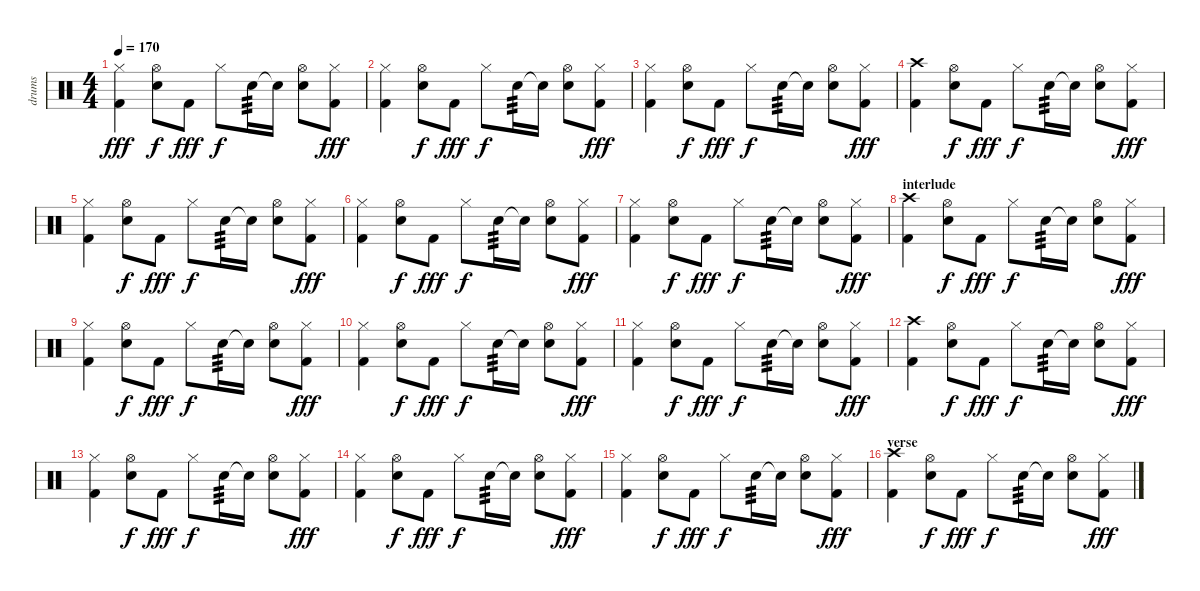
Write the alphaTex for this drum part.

\track ("drums" "drums") {instrument percussion}
\staff {score}
\articulation defaults
\ts (4 4)
\tempo 170
\clef neutral
\ks c
("Hi-Hat (closed)" "Kick (hit) 2").4{dy fff} ("Hi-Hat (open)" "Snare (hit) 2").8{dy f} "Kick (hit) 2".8{dy fff} "Hi-Hat (closed)".8{dy f} "Snare (hit) 2".16{tp 3} "Snare (hit) 2"{t}.16 ("Hi-Hat (open)" "Snare (hit) 2").8 ("Hi-Hat (closed)" "Kick (hit) 2").8{dy fff} |
("Hi-Hat (closed)" "Kick (hit) 2").4 ("Hi-Hat (open)" "Snare (hit) 2").8{dy f} "Kick (hit) 2".8{dy fff} "Hi-Hat (closed)".8{dy f} "Snare (hit) 2".16{tp 3} "Snare (hit) 2"{t}.16 ("Hi-Hat (open)" "Snare (hit) 2").8 ("Hi-Hat (closed)" "Kick (hit) 2").8{dy fff} |
("Hi-Hat (closed)" "Kick (hit) 2").4 ("Hi-Hat (open)" "Snare (hit) 2").8{dy f} "Kick (hit) 2".8{dy fff} "Hi-Hat (closed)".8{dy f} "Snare (hit) 2".16{tp 3} "Snare (hit) 2"{t}.16 ("Hi-Hat (open)" "Snare (hit) 2").8 ("Hi-Hat (closed)" "Kick (hit) 2").8{dy fff} |
("Crash high (hit)" "Kick (hit) 2").4 ("Hi-Hat (open)" "Snare (hit) 2").8{dy f} "Kick (hit) 2".8{dy fff} "Hi-Hat (closed)".8{dy f} "Snare (hit) 2".16{tp 3} "Snare (hit) 2"{t}.16 ("Hi-Hat (open)" "Snare (hit) 2").8 ("Hi-Hat (closed)" "Kick (hit) 2").8{dy fff} |
("Hi-Hat (closed)" "Kick (hit) 2").4 ("Hi-Hat (open)" "Snare (hit) 2").8{dy f} "Kick (hit) 2".8{dy fff} "Hi-Hat (closed)".8{dy f} "Snare (hit) 2".16{tp 3} "Snare (hit) 2"{t}.16 ("Hi-Hat (open)" "Snare (hit) 2").8 ("Hi-Hat (closed)" "Kick (hit) 2").8{dy fff} |
("Hi-Hat (closed)" "Kick (hit) 2").4 ("Hi-Hat (open)" "Snare (hit) 2").8{dy f} "Kick (hit) 2".8{dy fff} "Hi-Hat (closed)".8{dy f} "Snare (hit) 2".16{tp 3} "Snare (hit) 2"{t}.16 ("Hi-Hat (open)" "Snare (hit) 2").8 ("Hi-Hat (closed)" "Kick (hit) 2").8{dy fff} |
("Hi-Hat (closed)" "Kick (hit) 2").4 ("Hi-Hat (open)" "Snare (hit) 2").8{dy f} "Kick (hit) 2".8{dy fff} "Hi-Hat (closed)".8{dy f} "Snare (hit) 2".16{tp 3} "Snare (hit) 2"{t}.16 ("Hi-Hat (open)" "Snare (hit) 2").8 ("Hi-Hat (closed)" "Kick (hit) 2").8{dy fff} |
\section ("" "interlude")
("Crash high (hit)" "Kick (hit) 2").4 ("Hi-Hat (open)" "Snare (hit) 2").8{dy f} "Kick (hit) 2".8{dy fff} "Hi-Hat (closed)".8{dy f} "Snare (hit) 2".16{tp 3} "Snare (hit) 2"{t}.16 ("Hi-Hat (open)" "Snare (hit) 2").8 ("Hi-Hat (closed)" "Kick (hit) 2").8{dy fff} |
("Hi-Hat (closed)" "Kick (hit) 2").4 ("Hi-Hat (open)" "Snare (hit) 2").8{dy f} "Kick (hit) 2".8{dy fff} "Hi-Hat (closed)".8{dy f} "Snare (hit) 2".16{tp 3} "Snare (hit) 2"{t}.16 ("Hi-Hat (open)" "Snare (hit) 2").8 ("Hi-Hat (closed)" "Kick (hit) 2").8{dy fff} |
("Hi-Hat (closed)" "Kick (hit) 2").4 ("Hi-Hat (open)" "Snare (hit) 2").8{dy f} "Kick (hit) 2".8{dy fff} "Hi-Hat (closed)".8{dy f} "Snare (hit) 2".16{tp 3} "Snare (hit) 2"{t}.16 ("Hi-Hat (open)" "Snare (hit) 2").8 ("Hi-Hat (closed)" "Kick (hit) 2").8{dy fff} |
("Hi-Hat (closed)" "Kick (hit) 2").4 ("Hi-Hat (open)" "Snare (hit) 2").8{dy f} "Kick (hit) 2".8{dy fff} "Hi-Hat (closed)".8{dy f} "Snare (hit) 2".16{tp 3} "Snare (hit) 2"{t}.16 ("Hi-Hat (open)" "Snare (hit) 2").8 ("Hi-Hat (closed)" "Kick (hit) 2").8{dy fff} |
("Crash high (hit)" "Kick (hit) 2").4 ("Hi-Hat (open)" "Snare (hit) 2").8{dy f} "Kick (hit) 2".8{dy fff} "Hi-Hat (closed)".8{dy f} "Snare (hit) 2".16{tp 3} "Snare (hit) 2"{t}.16 ("Hi-Hat (open)" "Snare (hit) 2").8 ("Hi-Hat (closed)" "Kick (hit) 2").8{dy fff} |
("Hi-Hat (closed)" "Kick (hit) 2").4 ("Hi-Hat (open)" "Snare (hit) 2").8{dy f} "Kick (hit) 2".8{dy fff} "Hi-Hat (closed)".8{dy f} "Snare (hit) 2".16{tp 3} "Snare (hit) 2"{t}.16 ("Hi-Hat (open)" "Snare (hit) 2").8 ("Hi-Hat (closed)" "Kick (hit) 2").8{dy fff} |
("Hi-Hat (closed)" "Kick (hit) 2").4 ("Hi-Hat (open)" "Snare (hit) 2").8{dy f} "Kick (hit) 2".8{dy fff} "Hi-Hat (closed)".8{dy f} "Snare (hit) 2".16{tp 3} "Snare (hit) 2"{t}.16 ("Hi-Hat (open)" "Snare (hit) 2").8 ("Hi-Hat (closed)" "Kick (hit) 2").8{dy fff} |
("Hi-Hat (closed)" "Kick (hit) 2").4 ("Hi-Hat (open)" "Snare (hit) 2").8{dy f} "Kick (hit) 2".8{dy fff} "Hi-Hat (closed)".8{dy f} "Snare (hit) 2".16{tp 3} "Snare (hit) 2"{t}.16 ("Hi-Hat (open)" "Snare (hit) 2").8 ("Hi-Hat (closed)" "Kick (hit) 2").8{dy fff} |
\section ("" "verse")
("Crash high (hit)" "Kick (hit) 2").4 ("Hi-Hat (open)" "Snare (hit) 2").8{dy f} "Kick (hit) 2".8{dy fff} "Hi-Hat (closed)".8{dy f} "Snare (hit) 2".16{tp 3} "Snare (hit) 2"{t}.16 ("Hi-Hat (open)" "Snare (hit) 2").8 ("Hi-Hat (closed)" "Kick (hit) 2").8{dy fff}
